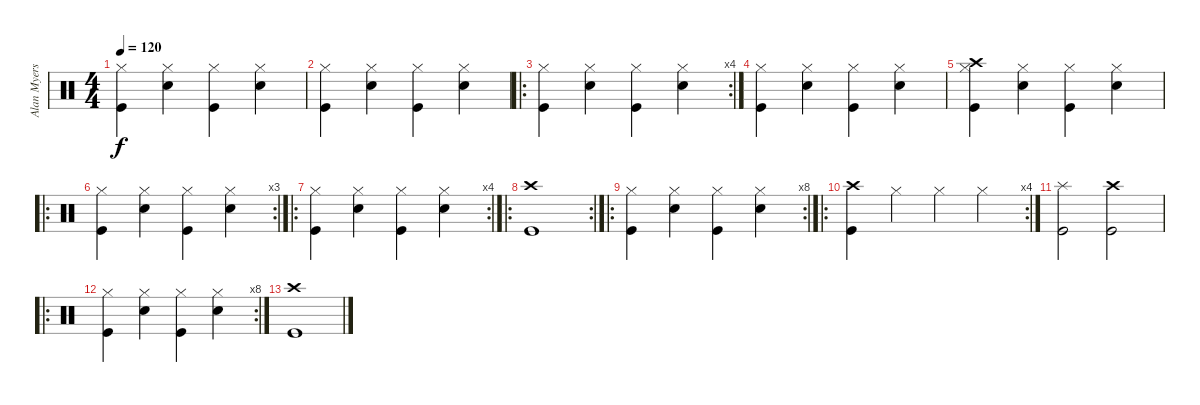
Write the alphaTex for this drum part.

\track ("Alan Myers" "Alan Myers") {instrument percussion}
\staff {score}
\articulation defaults
\ts (4 4)
\tempo 120
\clef neutral
\ks c
("Hi-Hat (closed)" "Kick (hit)").4{dy f} ("Hi-Hat (closed)" "Electric Snare (hit)").4 ("Hi-Hat (closed)" "Kick (hit)").4 ("Hi-Hat (closed)" "Electric Snare (hit)").4 |
("Hi-Hat (closed)" "Kick (hit)").4 ("Hi-Hat (closed)" "Electric Snare (hit)").4 ("Hi-Hat (closed)" "Kick (hit)").4 ("Hi-Hat (closed)" "Electric Snare (hit)").4 |
\ro
\rc 4
("Hi-Hat (closed)" "Kick (hit)").4 ("Hi-Hat (closed)" "Electric Snare (hit)").4 ("Hi-Hat (closed)" "Kick (hit)").4 ("Hi-Hat (closed)" "Electric Snare (hit)").4 |
("Hi-Hat (closed)" "Kick (hit)").4 ("Hi-Hat (closed)" "Electric Snare (hit)").4 ("Hi-Hat (closed)" "Kick (hit)").4 ("Hi-Hat (closed)" "Electric Snare (hit)").4 |
("Hi-Hat (closed)" "Crash high (hit)" "Kick (hit)").4 ("Hi-Hat (closed)" "Electric Snare (hit)").4 ("Hi-Hat (closed)" "Kick (hit)").4 ("Hi-Hat (closed)" "Electric Snare (hit)").4 |
\ro
\rc 3
("Hi-Hat (closed)" "Kick (hit)").4 ("Hi-Hat (closed)" "Electric Snare (hit)").4 ("Hi-Hat (closed)" "Kick (hit)").4 ("Hi-Hat (closed)" "Electric Snare (hit)").4 |
\ro
\rc 4
("Hi-Hat (closed)" "Kick (hit)").4 ("Hi-Hat (closed)" "Electric Snare (hit)").4 ("Hi-Hat (closed)" "Kick (hit)").4 ("Hi-Hat (closed)" "Electric Snare (hit)").4 |
\ro
\rc 2
("Crash high (hit)" "Kick (hit)").1 |
\ro
\rc 8
("Hi-Hat (closed)" "Kick (hit)").4 ("Hi-Hat (closed)" "Electric Snare (hit)").4 ("Hi-Hat (closed)" "Kick (hit)").4 ("Hi-Hat (closed)" "Electric Snare (hit)").4 |
\ro
\rc 4
("Crash high (hit)" "Kick (hit)").4 "Hi-Hat (closed)".4 "Hi-Hat (closed)".4 "Hi-Hat (closed)".4 |
("Splash (hit)" "Kick (hit)").2 ("Crash high (hit)" "Kick (hit)").2 |
\ro
\rc 8
("Hi-Hat (closed)" "Kick (hit)").4 ("Hi-Hat (closed)" "Electric Snare (hit)").4 ("Hi-Hat (closed)" "Kick (hit)").4 ("Hi-Hat (closed)" "Electric Snare (hit)").4 |
("Crash high (hit)" "Kick (hit)").1
